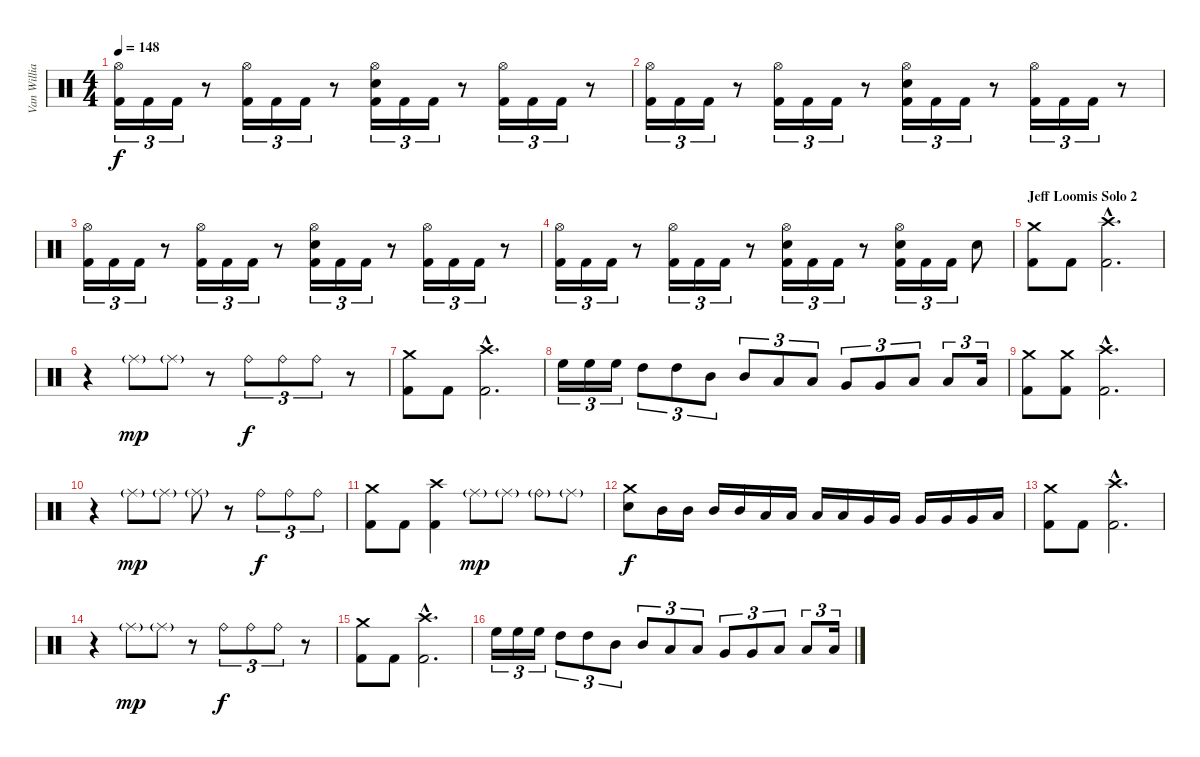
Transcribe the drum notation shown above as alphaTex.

\track ("Van Williams" "Van Willia") {instrument percussion}
\staff {score}
\articulation defaults
\ts (4 4)
\tempo 148
\clef neutral
\ks c
("Hi-Hat (open)" "Kick (hit) 2").16{tu (3 2) dy f} "Kick (hit) 2".16{tu (3 2)} "Kick (hit) 2".16{tu (3 2)} r.8 ("Hi-Hat (open)" "Kick (hit) 2").16{tu (3 2)} "Kick (hit) 2".16{tu (3 2)} "Kick (hit) 2".16{tu (3 2)} r.8 ("Hi-Hat (open)" "Electric Snare (hit)" "Kick (hit) 2").16{tu (3 2)} "Kick (hit) 2".16{tu (3 2)} "Kick (hit) 2".16{tu (3 2)} r.8 ("Hi-Hat (open)" "Kick (hit) 2").16{tu (3 2)} "Kick (hit) 2".16{tu (3 2)} "Kick (hit) 2".16{tu (3 2)} r.8 |
("Hi-Hat (open)" "Kick (hit) 2").16{tu (3 2)} "Kick (hit) 2".16{tu (3 2)} "Kick (hit) 2".16{tu (3 2)} r.8 ("Hi-Hat (open)" "Kick (hit) 2").16{tu (3 2)} "Kick (hit) 2".16{tu (3 2)} "Kick (hit) 2".16{tu (3 2)} r.8 ("Hi-Hat (open)" "Electric Snare (hit)" "Kick (hit) 2").16{tu (3 2)} "Kick (hit) 2".16{tu (3 2)} "Kick (hit) 2".16{tu (3 2)} r.8 ("Hi-Hat (open)" "Kick (hit) 2").16{tu (3 2)} "Kick (hit) 2".16{tu (3 2)} "Kick (hit) 2".16{tu (3 2)} r.8 |
("Hi-Hat (open)" "Kick (hit) 2").16{tu (3 2)} "Kick (hit) 2".16{tu (3 2)} "Kick (hit) 2".16{tu (3 2)} r.8 ("Hi-Hat (open)" "Kick (hit) 2").16{tu (3 2)} "Kick (hit) 2".16{tu (3 2)} "Kick (hit) 2".16{tu (3 2)} r.8 ("Hi-Hat (open)" "Electric Snare (hit)" "Kick (hit) 2").16{tu (3 2)} "Kick (hit) 2".16{tu (3 2)} "Kick (hit) 2".16{tu (3 2)} r.8 ("Hi-Hat (open)" "Kick (hit) 2").16{tu (3 2)} "Kick (hit) 2".16{tu (3 2)} "Kick (hit) 2".16{tu (3 2)} r.8 |
("Hi-Hat (open)" "Kick (hit) 2").16{tu (3 2)} "Kick (hit) 2".16{tu (3 2)} "Kick (hit) 2".16{tu (3 2)} r.8 ("Hi-Hat (open)" "Kick (hit) 2").16{tu (3 2)} "Kick (hit) 2".16{tu (3 2)} "Kick (hit) 2".16{tu (3 2)} r.8 ("Hi-Hat (open)" "Electric Snare (hit)" "Kick (hit) 2").16{tu (3 2)} "Kick (hit) 2".16{tu (3 2)} "Kick (hit) 2".16{tu (3 2)} r.8 ("Hi-Hat (open)" "Electric Snare (hit)" "Kick (hit) 2").16{tu (3 2)} "Kick (hit) 2".16{tu (3 2)} "Kick (hit) 2".16{tu (3 2)} "Electric Snare (hit)".8 |
\section ("" "Jeff Loomis Solo 2")
("Crash medium (hit)" "Kick (hit) 2").8 "Kick (hit) 2".8 ("Crash high (hit)"{hac} "Kick (hit) 2"{hac}).2{d} |
r.4 "Ride (middle)"{g}.8{dy mp} "Ride (middle)"{g}.8 r.8 "Ride (bell)".8{tu (3 2) dy f} "Ride (bell)".8{tu (3 2)} "Ride (bell)".8{tu (3 2)} r.8 |
("Crash medium (hit)" "Kick (hit) 2").8 "Kick (hit) 2".8 ("Crash high (hit)"{hac} "Kick (hit) 2"{hac}).2{d} |
"High Floor Tom (hit)".16{tu (3 2)} "High Floor Tom (hit)".16{tu (3 2)} "High Floor Tom (hit)".16{tu (3 2)} "High Tom (hit)".8{tu (3 2)} "High Tom (hit)".8{tu (3 2)} "Mid Tom (hit)".8{tu (3 2)} "Mid Tom (hit)".8{tu (3 2)} "Low Tom (hit)".8{tu (3 2)} "Low Tom (hit)".8{tu (3 2)} "Very Low Tom (hit)".8{tu (3 2)} "Very Low Tom (hit)".8{tu (3 2)} "Low Floor Tom (hit)".8{tu (3 2)} "Low Floor Tom (hit)".8{tu (3 2)} "Low Floor Tom (hit)".16{tu (3 2)} |
("Crash medium (hit)" "Kick (hit) 2").8 ("Crash medium (hit)" "Kick (hit) 2").8 ("Crash high (hit)"{hac} "Kick (hit) 2"{hac}).2{d} |
r.4 "Ride (middle)"{g}.8{dy mp} "Ride (middle)"{g}.8 "Ride (middle)"{g}.8 r.8 "Ride (bell)".8{tu (3 2) dy f} "Ride (bell)".8{tu (3 2)} "Ride (bell)".8{tu (3 2)} |
("Crash medium (hit)" "Kick (hit) 2").8 "Kick (hit) 2".8 ("Crash high (hit)" "Kick (hit) 2").4 "Ride (middle)"{g}.8{dy mp} "Ride (middle)"{g}.8 "Ride (bell)"{g}.8 "Ride (middle)"{g}.8 |
("Crash medium (hit)" "Electric Snare (hit)").8{dy f} "Mid Tom (hit)".16 "Mid Tom (hit)".16 "Mid Tom (hit)".16 "Mid Tom (hit)".16 "Low Tom (hit)".16 "Low Tom (hit)".16 "Low Tom (hit)".16 "Low Tom (hit)".16 "Very Low Tom (hit)".16 "Very Low Tom (hit)".16 "Very Low Tom (hit)".16 "Very Low Tom (hit)".16 "Very Low Tom (hit)".16 "Low Floor Tom (hit)".16 |
("Crash medium (hit)" "Kick (hit) 2").8 "Kick (hit) 2".8 ("Crash high (hit)"{hac} "Kick (hit) 2"{hac}).2{d} |
r.4 "Ride (middle)"{g}.8{dy mp} "Ride (middle)"{g}.8 r.8 "Ride (bell)".8{tu (3 2) dy f} "Ride (bell)".8{tu (3 2)} "Ride (bell)".8{tu (3 2)} r.8 |
("Crash medium (hit)" "Kick (hit) 2").8 "Kick (hit) 2".8 ("Crash high (hit)"{hac} "Kick (hit) 2"{hac}).2{d} |
"High Floor Tom (hit)".16{tu (3 2)} "High Floor Tom (hit)".16{tu (3 2)} "High Floor Tom (hit)".16{tu (3 2)} "High Tom (hit)".8{tu (3 2)} "High Tom (hit)".8{tu (3 2)} "Mid Tom (hit)".8{tu (3 2)} "Mid Tom (hit)".8{tu (3 2)} "Low Tom (hit)".8{tu (3 2)} "Low Tom (hit)".8{tu (3 2)} "Very Low Tom (hit)".8{tu (3 2)} "Very Low Tom (hit)".8{tu (3 2)} "Low Floor Tom (hit)".8{tu (3 2)} "Low Floor Tom (hit)".8{tu (3 2)} "Low Floor Tom (hit)".16{tu (3 2)}
